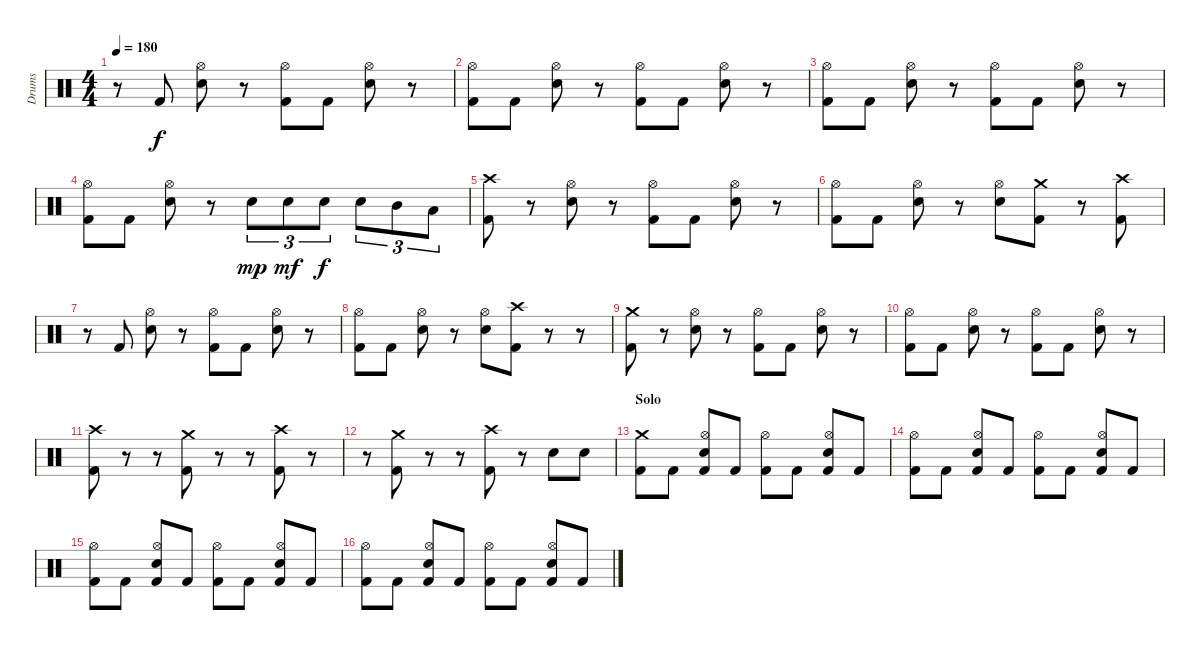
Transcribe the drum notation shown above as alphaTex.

\track ("Drums" "Drums") {instrument percussion}
\staff {score}
\articulation defaults
\ts (4 4)
\tempo 180
\clef neutral
\ks c
r.8{dy f} "Kick (hit) 2".8 ("Hi-Hat (open)" "Snare (hit) 2").8 r.8 ("Hi-Hat (open)" "Kick (hit) 2").8 "Kick (hit) 2".8 ("Hi-Hat (open)" "Snare (hit) 2").8 r.8 |
("Hi-Hat (open)" "Kick (hit) 2").8 "Kick (hit) 2".8 ("Hi-Hat (open)" "Snare (hit) 2").8 r.8 ("Hi-Hat (open)" "Kick (hit) 2").8 "Kick (hit) 2".8 ("Hi-Hat (open)" "Snare (hit) 2").8 r.8 |
("Hi-Hat (open)" "Kick (hit) 2").8 "Kick (hit) 2".8 ("Hi-Hat (open)" "Snare (hit) 2").8 r.8 ("Hi-Hat (open)" "Kick (hit) 2").8 "Kick (hit) 2".8 ("Hi-Hat (open)" "Snare (hit) 2").8 r.8 |
("Hi-Hat (open)" "Kick (hit) 2").8 "Kick (hit) 2".8 ("Hi-Hat (open)" "Snare (hit) 2").8 r.8 "Snare (hit) 2".8{tu (3 2) dy mp} "Snare (hit) 2".8{tu (3 2) dy mf} "Snare (hit) 2".8{tu (3 2) dy f} "Snare (hit) 2".8{tu (3 2)} "Mid Tom (hit)".8{tu (3 2)} "Low Tom (hit)".8{tu (3 2)} |
("Crash high (hit)" "Kick (hit) 2").8 r.8 ("Hi-Hat (open)" "Snare (hit) 2").8 r.8 ("Hi-Hat (open)" "Kick (hit) 2").8 "Kick (hit) 2".8 ("Hi-Hat (open)" "Snare (hit) 2").8 r.8 |
("Hi-Hat (open)" "Kick (hit) 2").8 "Kick (hit) 2".8 ("Hi-Hat (open)" "Snare (hit) 2").8 r.8 ("Hi-Hat (open)" "Snare (hit) 2").8 ("Crash medium (hit)" "Kick (hit) 2").8 r.8 ("Crash high (hit)" "Kick (hit) 2").8 |
r.8 "Kick (hit) 2".8 ("Hi-Hat (open)" "Snare (hit) 2").8 r.8 ("Hi-Hat (open)" "Kick (hit) 2").8 "Kick (hit) 2".8 ("Hi-Hat (open)" "Snare (hit) 2").8 r.8 |
("Hi-Hat (open)" "Kick (hit) 2").8 "Kick (hit) 2".8 ("Hi-Hat (open)" "Snare (hit) 2").8 r.8 ("Hi-Hat (open)" "Snare (hit) 2").8 ("Crash high (hit)" "Kick (hit) 2").8 r.8 r.8 |
("Crash medium (hit)" "Kick (hit) 2").8 r.8 ("Hi-Hat (open)" "Snare (hit) 2").8 r.8 ("Hi-Hat (open)" "Kick (hit) 2").8 "Kick (hit) 2".8 ("Hi-Hat (open)" "Snare (hit) 2").8 r.8 |
("Hi-Hat (open)" "Kick (hit) 2").8 "Kick (hit) 2".8 ("Hi-Hat (open)" "Snare (hit) 2").8 r.8 ("Hi-Hat (open)" "Kick (hit) 2").8 "Kick (hit) 2".8 ("Hi-Hat (open)" "Snare (hit) 2").8 r.8 |
("Crash high (hit)" "Kick (hit) 2").8 r.8 r.8 ("Crash medium (hit)" "Kick (hit) 2").8 r.8 r.8 ("Crash high (hit)" "Kick (hit) 2").8 r.8 |
r.8 ("Crash medium (hit)" "Kick (hit) 2").8 r.8 r.8 ("Crash high (hit)" "Kick (hit) 2").8 r.8 "Snare (hit) 2".8 "Snare (hit) 2".8 |
\section ("" "Solo")
("Crash medium (hit)" "Kick (hit) 2").8 "Kick (hit) 2".8 ("Hi-Hat (open)" "Snare (hit) 2" "Kick (hit) 2").8 "Kick (hit) 2".8 ("Hi-Hat (open)" "Kick (hit) 2").8 "Kick (hit) 2".8 ("Hi-Hat (open)" "Snare (hit) 2" "Kick (hit) 2").8 "Kick (hit) 2".8 |
("Hi-Hat (open)" "Kick (hit) 2").8 "Kick (hit) 2".8 ("Hi-Hat (open)" "Snare (hit) 2" "Kick (hit) 2").8 "Kick (hit) 2".8 ("Hi-Hat (open)" "Kick (hit) 2").8 "Kick (hit) 2".8 ("Hi-Hat (open)" "Snare (hit) 2" "Kick (hit) 2").8 "Kick (hit) 2".8 |
("Hi-Hat (open)" "Kick (hit) 2").8 "Kick (hit) 2".8 ("Hi-Hat (open)" "Snare (hit) 2" "Kick (hit) 2").8 "Kick (hit) 2".8 ("Hi-Hat (open)" "Kick (hit) 2").8 "Kick (hit) 2".8 ("Hi-Hat (open)" "Snare (hit) 2" "Kick (hit) 2").8 "Kick (hit) 2".8 |
("Hi-Hat (open)" "Kick (hit) 2").8 "Kick (hit) 2".8 ("Hi-Hat (open)" "Snare (hit) 2" "Kick (hit) 2").8 "Kick (hit) 2".8 ("Hi-Hat (open)" "Kick (hit) 2").8 "Kick (hit) 2".8 ("Hi-Hat (open)" "Snare (hit) 2" "Kick (hit) 2").8 "Kick (hit) 2".8
